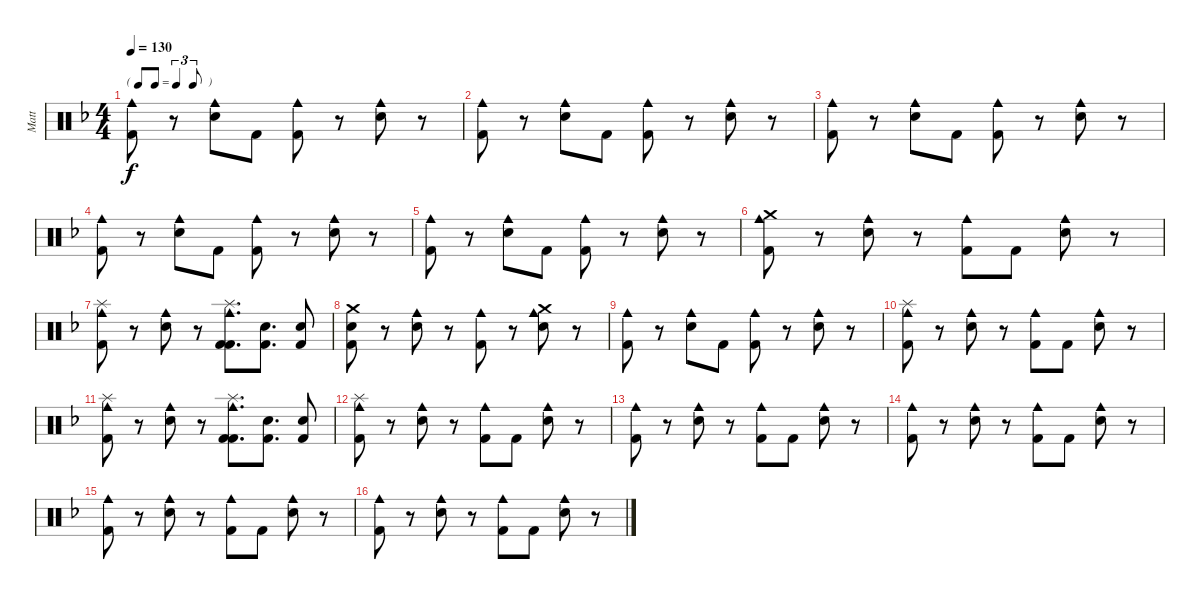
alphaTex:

\track ("Matt" "Matt") {instrument percussion}
\staff {score}
\articulation defaults
\ts (4 4)
\tf triplet8th
\tempo 130
\clef neutral
\ks f
("Cowbell medium (hit)" "Kick (hit) 2").8{dy f} r.8 ("Cowbell medium (hit)" "Snare (hit) 2").8 "Kick (hit) 2".8 ("Cowbell medium (hit)" "Kick (hit) 2").8 r.8 ("Cowbell medium (hit)" "Snare (hit) 2").8 r.8 |
("Cowbell medium (hit)" "Kick (hit) 2").8 r.8 ("Cowbell medium (hit)" "Snare (hit) 2").8 "Kick (hit) 2".8 ("Cowbell medium (hit)" "Kick (hit) 2").8 r.8 ("Cowbell medium (hit)" "Snare (hit) 2").8 r.8 |
("Cowbell medium (hit)" "Kick (hit) 2").8 r.8 ("Cowbell medium (hit)" "Snare (hit) 2").8 "Kick (hit) 2".8 ("Cowbell medium (hit)" "Kick (hit) 2").8 r.8 ("Cowbell medium (hit)" "Snare (hit) 2").8 r.8 |
("Cowbell medium (hit)" "Kick (hit) 2").8 r.8 ("Cowbell medium (hit)" "Snare (hit) 2").8 "Kick (hit) 2".8 ("Cowbell medium (hit)" "Kick (hit) 2").8 r.8 ("Cowbell medium (hit)" "Snare (hit) 2").8 r.8 |
("Cowbell medium (hit)" "Kick (hit) 2").8 r.8 ("Cowbell medium (hit)" "Snare (hit) 2").8 "Kick (hit) 2".8 ("Cowbell medium (hit)" "Kick (hit) 2").8 r.8 ("Cowbell medium (hit)" "Snare (hit) 2").8 r.8 |
("Cowbell medium (hit)" "Kick (hit) 2" "Crash medium (hit)").8 r.8 ("Cowbell medium (hit)" "Snare (hit) 2").8 r.8 ("Cowbell medium (hit)" "Kick (hit) 2").8 "Kick (hit) 2".8 ("Cowbell medium (hit)" "Snare (hit) 2").8 r.8 |
("Cowbell medium (hit)" "Kick (hit) 2" "Splash (hit)").8 r.8 ("Cowbell medium (hit)" "Snare (hit) 2").8 r.8 ("Cowbell medium (hit)" "Kick (hit) 2" "Kick (hit) 2" "Splash (hit)").8{d} ("Snare (hit) 2" "Kick (hit) 2").8{d} ("Snare (hit) 2" "Kick (hit) 2").8 |
("Snare (hit) 2" "Kick (hit) 2" "Crash medium (hit)").8 r.8 ("Cowbell medium (hit)" "Snare (hit) 2").8 r.8 ("Cowbell medium (hit)" "Kick (hit) 2").8 r.8 ("Cowbell medium (hit)" "Snare (hit) 2" "Crash medium (hit)").8 r.8 |
("Cowbell medium (hit)" "Kick (hit) 2").8 r.8 ("Cowbell medium (hit)" "Snare (hit) 2").8 "Kick (hit) 2".8 ("Cowbell medium (hit)" "Kick (hit) 2").8 r.8 ("Cowbell medium (hit)" "Snare (hit) 2").8 r.8 |
("Cowbell medium (hit)" "Kick (hit) 2" "Splash (hit)").8 r.8 ("Cowbell medium (hit)" "Snare (hit) 2").8 r.8 ("Cowbell medium (hit)" "Kick (hit) 2").8 "Kick (hit) 2".8 ("Cowbell medium (hit)" "Snare (hit) 2").8 r.8 |
("Cowbell medium (hit)" "Kick (hit) 2" "Splash (hit)").8 r.8 ("Cowbell medium (hit)" "Snare (hit) 2").8 r.8 ("Cowbell medium (hit)" "Kick (hit) 2" "Kick (hit) 2" "Splash (hit)").8{d} ("Snare (hit) 2" "Kick (hit) 2").8{d} ("Snare (hit) 2" "Kick (hit) 2").8 |
("Cowbell medium (hit)" "Kick (hit) 2" "Splash (hit)").8 r.8 ("Cowbell medium (hit)" "Snare (hit) 2").8 r.8 ("Cowbell medium (hit)" "Kick (hit) 2").8 "Kick (hit) 2".8 ("Cowbell medium (hit)" "Snare (hit) 2").8 r.8 |
("Cowbell medium (hit)" "Kick (hit) 2").8 r.8 ("Cowbell medium (hit)" "Snare (hit) 2").8 r.8 ("Cowbell medium (hit)" "Kick (hit) 2").8 "Kick (hit) 2".8 ("Cowbell medium (hit)" "Snare (hit) 2").8 r.8 |
("Cowbell medium (hit)" "Kick (hit) 2").8 r.8 ("Cowbell medium (hit)" "Snare (hit) 2").8 r.8 ("Cowbell medium (hit)" "Kick (hit) 2").8 "Kick (hit) 2".8 ("Cowbell medium (hit)" "Snare (hit) 2").8 r.8 |
("Cowbell medium (hit)" "Kick (hit) 2").8 r.8 ("Cowbell medium (hit)" "Snare (hit) 2").8 r.8 ("Cowbell medium (hit)" "Kick (hit) 2").8 "Kick (hit) 2".8 ("Cowbell medium (hit)" "Snare (hit) 2").8 r.8 |
("Cowbell medium (hit)" "Kick (hit) 2").8 r.8 ("Cowbell medium (hit)" "Snare (hit) 2").8 r.8 ("Cowbell medium (hit)" "Kick (hit) 2").8 "Kick (hit) 2".8 ("Cowbell medium (hit)" "Snare (hit) 2").8 r.8
